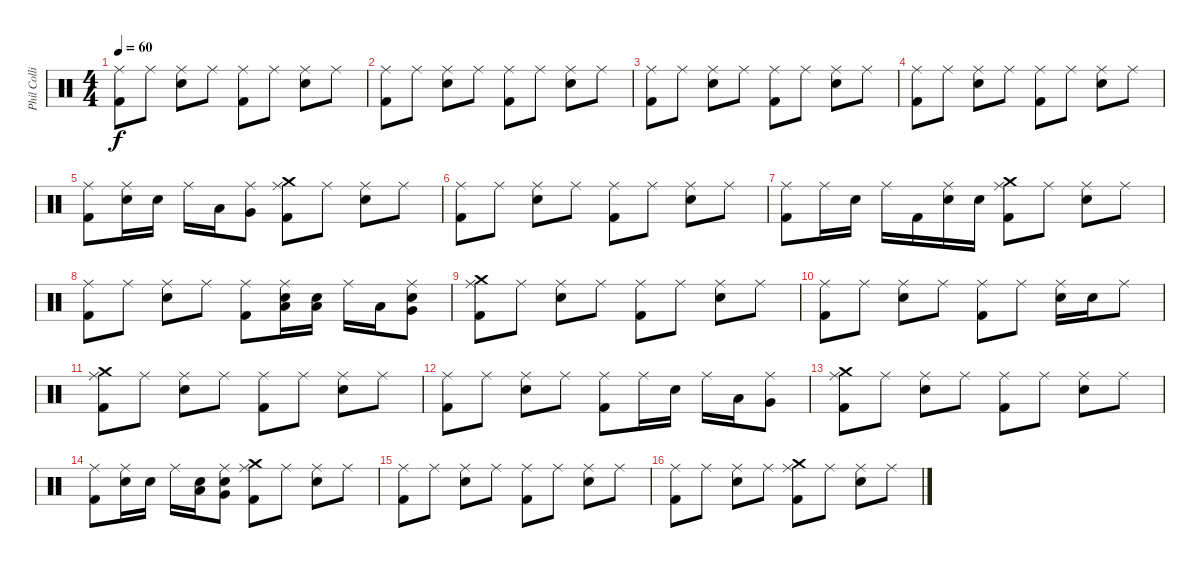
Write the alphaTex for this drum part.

\track ("Phil Collins (drums)" "Phil Colli") {instrument percussion}
\staff {score}
\articulation defaults
\ts (4 4)
\tempo 60
\clef neutral
\ks c
("Ride (middle)" "Kick (hit) 2").8{dy f} "Ride (middle)".8 ("Ride (middle)" "Electric Snare (hit)").8 "Ride (middle)".8 ("Ride (middle)" "Kick (hit) 2").8 "Ride (middle)".8 ("Ride (middle)" "Electric Snare (hit)").8 "Ride (middle)".8 |
("Ride (middle)" "Kick (hit) 2").8 "Ride (middle)".8 ("Ride (middle)" "Electric Snare (hit)").8 "Ride (middle)".8 ("Ride (middle)" "Kick (hit) 2").8 "Ride (middle)".8 ("Ride (middle)" "Electric Snare (hit)").8 "Ride (middle)".8 |
("Ride (middle)" "Kick (hit) 2").8 "Ride (middle)".8 ("Ride (middle)" "Electric Snare (hit)").8 "Ride (middle)".8 ("Ride (middle)" "Kick (hit) 2").8 "Ride (middle)".8 ("Ride (middle)" "Electric Snare (hit)").8 "Ride (middle)".8 |
("Ride (middle)" "Kick (hit) 2").8 "Ride (middle)".8 ("Ride (middle)" "Electric Snare (hit)").8 "Ride (middle)".8 ("Ride (middle)" "Kick (hit) 2").8 "Ride (middle)".8 ("Ride (middle)" "Electric Snare (hit)").8 "Ride (middle)".8 |
("Ride (middle)" "Kick (hit) 2").8 ("Ride (middle)" "Electric Snare (hit)").16 "Electric Snare (hit)".16 "Ride (middle)".16 "Low Tom (hit)".16 ("Ride (middle)" "Very Low Tom (hit)").8 ("Ride (middle)" "Crash medium (hit)" "Kick (hit) 2").8 "Ride (middle)".8 ("Ride (middle)" "Electric Snare (hit)").8 "Ride (middle)".8 |
("Ride (middle)" "Kick (hit) 2").8 "Ride (middle)".8 ("Ride (middle)" "Electric Snare (hit)").8 "Ride (middle)".8 ("Ride (middle)" "Kick (hit) 2").8 "Ride (middle)".8 ("Ride (middle)" "Electric Snare (hit)").8 "Ride (middle)".8 |
("Ride (middle)" "Kick (hit) 2").8 "Ride (middle)".16 "Electric Snare (hit)".16 "Ride (middle)".16 "Kick (hit) 2".16 ("Ride (middle)" "Electric Snare (hit)").16 "Electric Snare (hit)".16 ("Ride (middle)" "Crash medium (hit)" "Kick (hit) 2").8 "Ride (middle)".8 ("Ride (middle)" "Electric Snare (hit)").8 "Ride (middle)".8 |
("Ride (middle)" "Kick (hit) 2").8 "Ride (middle)".8 ("Ride (middle)" "Electric Snare (hit)").8 "Ride (middle)".8 ("Ride (middle)" "Kick (hit) 2").8 ("Ride (middle)" "Low Tom (hit)" "Electric Snare (hit)").16 ("Low Tom (hit)" "Electric Snare (hit)").16 "Ride (middle)".16 "Low Tom (hit)".16 ("Ride (middle)" "Very Low Tom (hit)" "Electric Snare (hit)").8 |
("Ride (middle)" "Crash medium (hit)" "Kick (hit) 2").8 "Ride (middle)".8 ("Ride (middle)" "Electric Snare (hit)").8 "Ride (middle)".8 ("Ride (middle)" "Kick (hit) 2").8 "Ride (middle)".8 ("Ride (middle)" "Electric Snare (hit)").8 "Ride (middle)".8 |
("Ride (middle)" "Kick (hit) 2").8 "Ride (middle)".8 ("Ride (middle)" "Electric Snare (hit)").8 "Ride (middle)".8 ("Ride (middle)" "Kick (hit) 2").8 "Ride (middle)".8 ("Ride (middle)" "Electric Snare (hit)").16 "Electric Snare (hit)".16 "Ride (middle)".8 |
("Ride (middle)" "Crash medium (hit)" "Kick (hit) 2").8 "Ride (middle)".8 ("Ride (middle)" "Electric Snare (hit)").8 "Ride (middle)".8 ("Ride (middle)" "Kick (hit) 2").8 "Ride (middle)".8 ("Ride (middle)" "Electric Snare (hit)").8 "Ride (middle)".8 |
("Ride (middle)" "Kick (hit) 2").8 "Ride (middle)".8 ("Ride (middle)" "Electric Snare (hit)").8 "Ride (middle)".8 ("Ride (middle)" "Kick (hit) 2").8 "Ride (middle)".16 "Electric Snare (hit)".16 "Ride (middle)".16 "Low Tom (hit)".16 ("Ride (middle)" "Very Low Tom (hit)").8 |
("Ride (middle)" "Crash medium (hit)" "Kick (hit) 2").8 "Ride (middle)".8 ("Ride (middle)" "Electric Snare (hit)").8 "Ride (middle)".8 ("Ride (middle)" "Kick (hit) 2").8 "Ride (middle)".8 ("Ride (middle)" "Electric Snare (hit)").8 "Ride (middle)".8 |
("Ride (middle)" "Kick (hit) 2").8 ("Ride (middle)" "Electric Snare (hit)").16 "Electric Snare (hit)".16 "Ride (middle)".16 ("Low Tom (hit)" "Electric Snare (hit)").16 ("Ride (middle)" "Very Low Tom (hit)" "Electric Snare (hit)").8 ("Ride (middle)" "Crash medium (hit)" "Kick (hit) 2").8 "Ride (middle)".8 ("Ride (middle)" "Electric Snare (hit)").8 "Ride (middle)".8 |
("Ride (middle)" "Kick (hit) 2").8 "Ride (middle)".8 ("Ride (middle)" "Electric Snare (hit)").8 "Ride (middle)".8 ("Ride (middle)" "Kick (hit) 2").8 "Ride (middle)".8 ("Ride (middle)" "Electric Snare (hit)").8 "Ride (middle)".8 |
("Ride (middle)" "Kick (hit) 2").8 "Ride (middle)".8 ("Ride (middle)" "Electric Snare (hit)").8 "Ride (middle)".8 ("Ride (middle)" "Crash medium (hit)" "Kick (hit) 2").8 "Ride (middle)".8 ("Ride (middle)" "Electric Snare (hit)").8 "Ride (middle)".8
